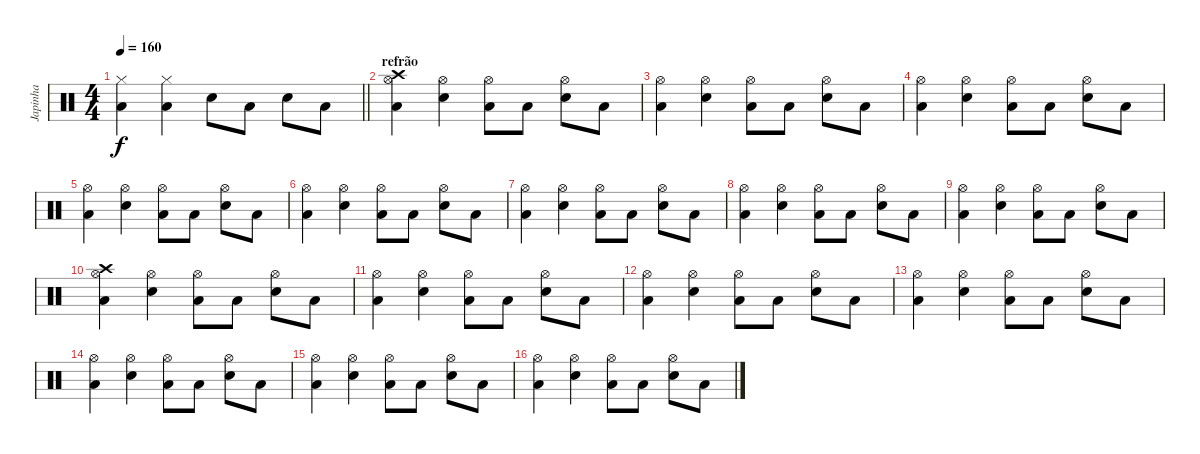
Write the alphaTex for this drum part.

\track ("Japinha" "Japinha") {instrument percussion}
\staff {score}
\articulation defaults
\ts (4 4)
\tempo 160
\clef neutral
\barLineRight lightlight
\ks c
("Hi-Hat (closed)" "Low Tom (hit)").4{dy f} ("Hi-Hat (closed)" "Low Tom (hit)").4 "Snare (hit) 2".8 "Low Tom (hit)".8 "Snare (hit) 2".8 "Low Tom (hit)".8 |
\section ("" "refrão")
("Crash high (hit)" "Hi-Hat (open)" "Low Tom (hit)").4 ("Hi-Hat (open)" "Snare (hit) 2").4 ("Hi-Hat (open)" "Low Tom (hit)").8 "Low Tom (hit)".8 ("Hi-Hat (open)" "Snare (hit) 2").8 "Low Tom (hit)".8 |
("Hi-Hat (open)" "Low Tom (hit)").4 ("Hi-Hat (open)" "Snare (hit) 2").4 ("Hi-Hat (open)" "Low Tom (hit)").8 "Low Tom (hit)".8 ("Hi-Hat (open)" "Snare (hit) 2").8 "Low Tom (hit)".8 |
("Hi-Hat (open)" "Low Tom (hit)").4 ("Hi-Hat (open)" "Snare (hit) 2").4 ("Hi-Hat (open)" "Low Tom (hit)").8 "Low Tom (hit)".8 ("Hi-Hat (open)" "Snare (hit) 2").8 "Low Tom (hit)".8 |
("Hi-Hat (open)" "Low Tom (hit)").4 ("Hi-Hat (open)" "Snare (hit) 2").4 ("Hi-Hat (open)" "Low Tom (hit)").8 "Low Tom (hit)".8 ("Hi-Hat (open)" "Snare (hit) 2").8 "Low Tom (hit)".8 |
("Hi-Hat (open)" "Low Tom (hit)").4 ("Hi-Hat (open)" "Snare (hit) 2").4 ("Hi-Hat (open)" "Low Tom (hit)").8 "Low Tom (hit)".8 ("Hi-Hat (open)" "Snare (hit) 2").8 "Low Tom (hit)".8 |
("Hi-Hat (open)" "Low Tom (hit)").4 ("Hi-Hat (open)" "Snare (hit) 2").4 ("Hi-Hat (open)" "Low Tom (hit)").8 "Low Tom (hit)".8 ("Hi-Hat (open)" "Snare (hit) 2").8 "Low Tom (hit)".8 |
("Hi-Hat (open)" "Low Tom (hit)").4 ("Hi-Hat (open)" "Snare (hit) 2").4 ("Hi-Hat (open)" "Low Tom (hit)").8 "Low Tom (hit)".8 ("Hi-Hat (open)" "Snare (hit) 2").8 "Low Tom (hit)".8 |
("Hi-Hat (open)" "Low Tom (hit)").4 ("Hi-Hat (open)" "Snare (hit) 2").4 ("Hi-Hat (open)" "Low Tom (hit)").8 "Low Tom (hit)".8 ("Hi-Hat (open)" "Snare (hit) 2").8 "Low Tom (hit)".8 |
("Crash high (hit)" "Hi-Hat (open)" "Low Tom (hit)").4 ("Hi-Hat (open)" "Snare (hit) 2").4 ("Hi-Hat (open)" "Low Tom (hit)").8 "Low Tom (hit)".8 ("Hi-Hat (open)" "Snare (hit) 2").8 "Low Tom (hit)".8 |
("Hi-Hat (open)" "Low Tom (hit)").4 ("Hi-Hat (open)" "Snare (hit) 2").4 ("Hi-Hat (open)" "Low Tom (hit)").8 "Low Tom (hit)".8 ("Hi-Hat (open)" "Snare (hit) 2").8 "Low Tom (hit)".8 |
("Hi-Hat (open)" "Low Tom (hit)").4 ("Hi-Hat (open)" "Snare (hit) 2").4 ("Hi-Hat (open)" "Low Tom (hit)").8 "Low Tom (hit)".8 ("Hi-Hat (open)" "Snare (hit) 2").8 "Low Tom (hit)".8 |
("Hi-Hat (open)" "Low Tom (hit)").4 ("Hi-Hat (open)" "Snare (hit) 2").4 ("Hi-Hat (open)" "Low Tom (hit)").8 "Low Tom (hit)".8 ("Hi-Hat (open)" "Snare (hit) 2").8 "Low Tom (hit)".8 |
("Hi-Hat (open)" "Low Tom (hit)").4 ("Hi-Hat (open)" "Snare (hit) 2").4 ("Hi-Hat (open)" "Low Tom (hit)").8 "Low Tom (hit)".8 ("Hi-Hat (open)" "Snare (hit) 2").8 "Low Tom (hit)".8 |
("Hi-Hat (open)" "Low Tom (hit)").4 ("Hi-Hat (open)" "Snare (hit) 2").4 ("Hi-Hat (open)" "Low Tom (hit)").8 "Low Tom (hit)".8 ("Hi-Hat (open)" "Snare (hit) 2").8 "Low Tom (hit)".8 |
("Hi-Hat (open)" "Low Tom (hit)").4 ("Hi-Hat (open)" "Snare (hit) 2").4 ("Hi-Hat (open)" "Low Tom (hit)").8 "Low Tom (hit)".8 ("Hi-Hat (open)" "Snare (hit) 2").8 "Low Tom (hit)".8
